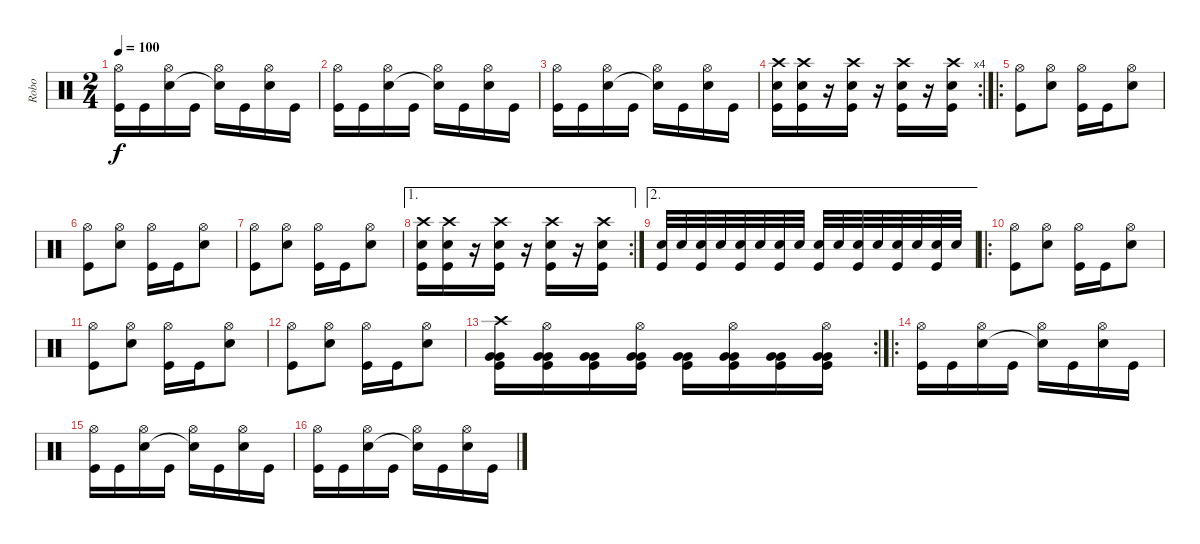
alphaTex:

\track ("Robo" "Robo") {instrument percussion}
\staff {score}
\articulation defaults
\ts (2 4)
\tempo 100
\clef neutral
\ks c
("Hi-Hat (open)" "Kick (hit)").16{dy f} "Kick (hit)".16 ("Hi-Hat (open)" "Snare (hit) 2").16 "Kick (hit)".16 ("Hi-Hat (open)" "Snare (hit)"{t}).16 "Kick (hit)".16 ("Hi-Hat (open)" "Snare (hit) 2").16 "Kick (hit)".16 |
("Hi-Hat (open)" "Kick (hit)").16 "Kick (hit)".16 ("Hi-Hat (open)" "Snare (hit) 2").16 "Kick (hit)".16 ("Hi-Hat (open)" "Snare (hit)"{t}).16 "Kick (hit)".16 ("Hi-Hat (open)" "Snare (hit) 2").16 "Kick (hit)".16 |
("Hi-Hat (open)" "Kick (hit)").16 "Kick (hit)".16 ("Hi-Hat (open)" "Snare (hit) 2").16 "Kick (hit)".16 ("Hi-Hat (open)" "Snare (hit)"{t}).16 "Kick (hit)".16 ("Hi-Hat (open)" "Snare (hit) 2").16 "Kick (hit)".16 |
\rc 4
("Crash high (hit)" "Snare (hit) 2" "Kick (hit)").16 ("Crash high (hit)" "Snare (hit) 2" "Kick (hit)").16 r.16 ("Crash high (hit)" "Snare (hit) 2" "Kick (hit)").16 r.16 ("Crash high (hit)" "Snare (hit) 2" "Kick (hit)").16 r.16 ("Crash high (hit)" "Snare (hit) 2" "Kick (hit)").16 |
\ro
("Hi-Hat (open)" "Kick (hit)").8 ("Hi-Hat (open)" "Snare (hit) 2").8 ("Hi-Hat (open)" "Kick (hit)").16 "Kick (hit)".16 ("Hi-Hat (open)" "Snare (hit) 2").8 |
("Hi-Hat (open)" "Kick (hit)").8 ("Hi-Hat (open)" "Snare (hit) 2").8 ("Hi-Hat (open)" "Kick (hit)").16 "Kick (hit)".16 ("Hi-Hat (open)" "Snare (hit) 2").8 |
("Hi-Hat (open)" "Kick (hit)").8 ("Hi-Hat (open)" "Snare (hit) 2").8 ("Hi-Hat (open)" "Kick (hit)").16 "Kick (hit)".16 ("Hi-Hat (open)" "Snare (hit) 2").8 |
\ae 1
\rc 2
("Crash high (hit)" "Snare (hit) 2" "Kick (hit)").16 ("Crash high (hit)" "Snare (hit) 2" "Kick (hit)").16 r.16 ("Crash high (hit)" "Snare (hit) 2" "Kick (hit)").16 r.16 ("Crash high (hit)" "Snare (hit) 2" "Kick (hit)").16 r.16 ("Crash high (hit)" "Snare (hit) 2" "Kick (hit)").16 |
\ae 2
("Snare (hit) 2" "Kick (hit)").32 "Snare (hit) 2".32 ("Snare (hit) 2" "Kick (hit)").32 "Snare (hit) 2".32 ("Snare (hit) 2" "Kick (hit)").32 "Snare (hit) 2".32 ("Snare (hit) 2" "Kick (hit)").32 "Snare (hit) 2".32 ("Snare (hit) 2" "Kick (hit)").32 "Snare (hit) 2".32 ("Snare (hit) 2" "Kick (hit)").32 "Snare (hit) 2".32 ("Snare (hit) 2" "Kick (hit)").32 "Snare (hit) 2".32 ("Snare (hit) 2" "Kick (hit)").32 "Snare (hit) 2".32 |
\ro
("Hi-Hat (open)" "Kick (hit)").8 ("Hi-Hat (open)" "Snare (hit) 2").8 ("Hi-Hat (open)" "Kick (hit)").16 "Kick (hit)".16 ("Hi-Hat (open)" "Snare (hit) 2").8 |
("Hi-Hat (open)" "Kick (hit)").8 ("Hi-Hat (open)" "Snare (hit) 2").8 ("Hi-Hat (open)" "Kick (hit)").16 "Kick (hit)".16 ("Hi-Hat (open)" "Snare (hit) 2").8 |
("Hi-Hat (open)" "Kick (hit)").8 ("Hi-Hat (open)" "Snare (hit) 2").8 ("Hi-Hat (open)" "Kick (hit)").16 "Kick (hit)".16 ("Hi-Hat (open)" "Snare (hit) 2").8 |
\rc 2
("Crash high (hit)" "Very Low Tom (hit)" "Very Low Tom (hit)" "Kick (hit)").16 ("Hi-Hat (open)" "Very Low Tom (hit)" "Very Low Tom (hit)" "Kick (hit)").16 ("Very Low Tom (hit)" "Very Low Tom (hit)" "Kick (hit)").16 ("Hi-Hat (open)" "Very Low Tom (hit)" "Very Low Tom (hit)" "Kick (hit)").16 ("Very Low Tom (hit)" "Very Low Tom (hit)" "Kick (hit)").16 ("Hi-Hat (open)" "Very Low Tom (hit)" "Very Low Tom (hit)" "Kick (hit)").16 ("Very Low Tom (hit)" "Very Low Tom (hit)" "Kick (hit)").16 ("Hi-Hat (open)" "Very Low Tom (hit)" "Very Low Tom (hit)" "Kick (hit)").16 |
\ro
("Hi-Hat (open)" "Kick (hit)").16 "Kick (hit)".16 ("Hi-Hat (open)" "Snare (hit) 2").16 "Kick (hit)".16 ("Hi-Hat (open)" "Snare (hit)"{t}).16 "Kick (hit)".16 ("Hi-Hat (open)" "Snare (hit) 2").16 "Kick (hit)".16 |
("Hi-Hat (open)" "Kick (hit)").16 "Kick (hit)".16 ("Hi-Hat (open)" "Snare (hit) 2").16 "Kick (hit)".16 ("Hi-Hat (open)" "Snare (hit)"{t}).16 "Kick (hit)".16 ("Hi-Hat (open)" "Snare (hit) 2").16 "Kick (hit)".16 |
("Hi-Hat (open)" "Kick (hit)").16 "Kick (hit)".16 ("Hi-Hat (open)" "Snare (hit) 2").16 "Kick (hit)".16 ("Hi-Hat (open)" "Snare (hit)"{t}).16 "Kick (hit)".16 ("Hi-Hat (open)" "Snare (hit) 2").16 "Kick (hit)".16
